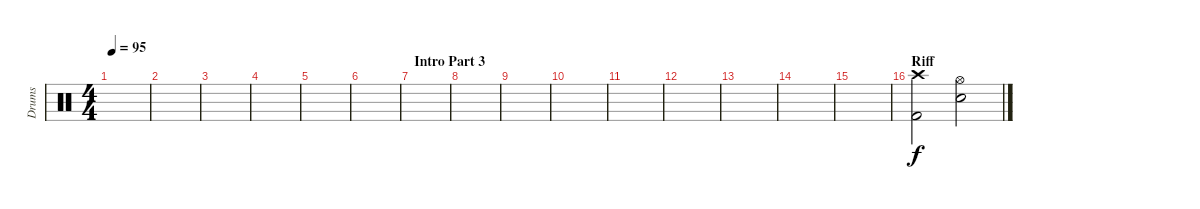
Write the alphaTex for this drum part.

\track ("Drums" "Drums") {instrument percussion}
\staff {score}
\articulation defaults
\ts (4 4)
\tempo 95
\clef neutral
\ks c
|
|
|
|
|
|
\section ("" "Intro Part 3")
|
|
|
|
|
|
|
|
|
\section ("" "Riff")
("Crash high (hit)" "Kick (hit) 2").2 ("Hi-Hat (open)" "Electric Snare (hit)").2
